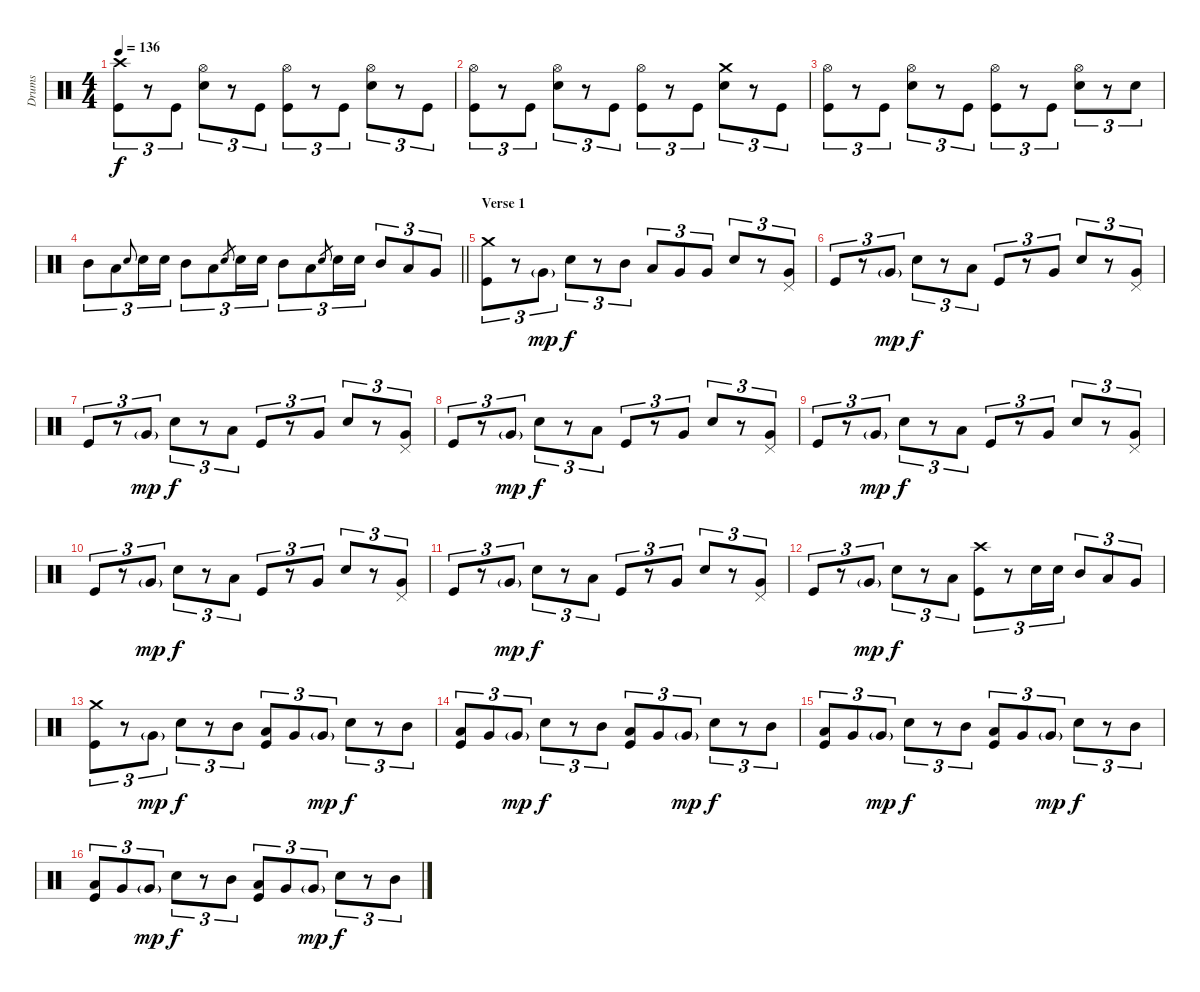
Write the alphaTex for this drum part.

\track ("Drums" "Drums") {instrument percussion}
\staff {score}
\articulation defaults
\ts (4 4)
\tempo 136
\clef neutral
\ks c
("Crash high (hit)" "Kick (hit)").8{tu (3 2) dy f} r.8{tu (3 2)} "Kick (hit)".8{tu (3 2)} ("Hi-Hat (open)" "Electric Snare (hit)").8{tu (3 2)} r.8{tu (3 2)} "Kick (hit)".8{tu (3 2)} ("Hi-Hat (open)" "Kick (hit)").8{tu (3 2)} r.8{tu (3 2)} "Kick (hit)".8{tu (3 2)} ("Hi-Hat (open)" "Electric Snare (hit)").8{tu (3 2)} r.8{tu (3 2)} "Kick (hit)".8{tu (3 2)} |
("Hi-Hat (open)" "Kick (hit)").8{tu (3 2)} r.8{tu (3 2)} "Kick (hit)".8{tu (3 2)} ("Hi-Hat (open)" "Electric Snare (hit)").8{tu (3 2)} r.8{tu (3 2)} "Kick (hit)".8{tu (3 2)} ("Hi-Hat (open)" "Kick (hit)").8{tu (3 2)} r.8{tu (3 2)} "Kick (hit)".8{tu (3 2)} ("Crash medium (hit)" "Electric Snare (hit)").8{tu (3 2)} r.8{tu (3 2)} "Kick (hit)".8{tu (3 2)} |
("Hi-Hat (open)" "Kick (hit)").8{tu (3 2)} r.8{tu (3 2)} "Kick (hit)".8{tu (3 2)} ("Hi-Hat (open)" "Electric Snare (hit)").8{tu (3 2)} r.8{tu (3 2)} "Kick (hit)".8{tu (3 2)} ("Hi-Hat (open)" "Kick (hit)").8{tu (3 2)} r.8{tu (3 2)} "Kick (hit)".8{tu (3 2)} ("Hi-Hat (open)" "Electric Snare (hit)").8{tu (3 2)} r.8{tu (3 2)} "Electric Snare (hit)".8{tu (3 2)} |
\barLineRight lightlight "Mid Tom (hit)".8{tu (3 2)} "Low Tom (hit)".8{tu (3 2)} "Electric Snare (hit)".8{gr onbeat} "Electric Snare (hit)".16{tu (3 2)} "Electric Snare (hit)".16{tu (3 2)} "Mid Tom (hit)".8{tu (3 2)} "Low Tom (hit)".8{tu (3 2)} "Electric Snare (hit)".8{gr} "Electric Snare (hit)".16{tu (3 2)} "Electric Snare (hit)".16{tu (3 2)} "Mid Tom (hit)".8{tu (3 2)} "Low Tom (hit)".8{tu (3 2)} "Electric Snare (hit)".8{gr} "Electric Snare (hit)".16{tu (3 2)} "Electric Snare (hit)".16{tu (3 2)} "Mid Tom (hit)".8{tu (3 2)} "Low Tom (hit)".8{tu (3 2)} "Very Low Tom (hit)".8{tu (3 2)}
|
\section ("" "Verse 1")
("Crash medium (hit)" "Kick (hit)").8{tu (3 2)} r.8{tu (3 2)} "Very Low Tom (hit)"{g}.8{tu (3 2) dy mp} "Electric Snare (hit)".8{tu (3 2) dy f} r.8{tu (3 2)} "Mid Tom (hit)".8{tu (3 2)} "Low Tom (hit)".8{tu (3 2)} "Very Low Tom (hit)".8{tu (3 2)} "Very Low Tom (hit)".8{tu (3 2)} "Electric Snare (hit)".8{tu (3 2)} r.8{tu (3 2)} ("Pedal Hi-Hat (hit)" "Very Low Tom (hit)").8{tu (3 2)} |
"Kick (hit)".8{tu (3 2)} r.8{tu (3 2)} "Very Low Tom (hit)"{g}.8{tu (3 2) dy mp} "Electric Snare (hit)".8{tu (3 2) dy f} r.8{tu (3 2)} "Low Tom (hit)".8{tu (3 2)} "Kick (hit)".8{tu (3 2)} r.8{tu (3 2)} "Very Low Tom (hit)".8{tu (3 2)} "Electric Snare (hit)".8{tu (3 2)} r.8{tu (3 2)} ("Pedal Hi-Hat (hit)" "Very Low Tom (hit)").8{tu (3 2)} |
"Kick (hit)".8{tu (3 2)} r.8{tu (3 2)} "Very Low Tom (hit)"{g}.8{tu (3 2) dy mp} "Electric Snare (hit)".8{tu (3 2) dy f} r.8{tu (3 2)} "Low Tom (hit)".8{tu (3 2)} "Kick (hit)".8{tu (3 2)} r.8{tu (3 2)} "Very Low Tom (hit)".8{tu (3 2)} "Electric Snare (hit)".8{tu (3 2)} r.8{tu (3 2)} ("Pedal Hi-Hat (hit)" "Very Low Tom (hit)").8{tu (3 2)} |
"Kick (hit)".8{tu (3 2)} r.8{tu (3 2)} "Very Low Tom (hit)"{g}.8{tu (3 2) dy mp} "Electric Snare (hit)".8{tu (3 2) dy f} r.8{tu (3 2)} "Low Tom (hit)".8{tu (3 2)} "Kick (hit)".8{tu (3 2)} r.8{tu (3 2)} "Very Low Tom (hit)".8{tu (3 2)} "Electric Snare (hit)".8{tu (3 2)} r.8{tu (3 2)} ("Pedal Hi-Hat (hit)" "Very Low Tom (hit)").8{tu (3 2)} |
"Kick (hit)".8{tu (3 2)} r.8{tu (3 2)} "Very Low Tom (hit)"{g}.8{tu (3 2) dy mp} "Electric Snare (hit)".8{tu (3 2) dy f} r.8{tu (3 2)} "Low Tom (hit)".8{tu (3 2)} "Kick (hit)".8{tu (3 2)} r.8{tu (3 2)} "Very Low Tom (hit)".8{tu (3 2)} "Electric Snare (hit)".8{tu (3 2)} r.8{tu (3 2)} ("Pedal Hi-Hat (hit)" "Very Low Tom (hit)").8{tu (3 2)} |
"Kick (hit)".8{tu (3 2)} r.8{tu (3 2)} "Very Low Tom (hit)"{g}.8{tu (3 2) dy mp} "Electric Snare (hit)".8{tu (3 2) dy f} r.8{tu (3 2)} "Low Tom (hit)".8{tu (3 2)} "Kick (hit)".8{tu (3 2)} r.8{tu (3 2)} "Very Low Tom (hit)".8{tu (3 2)} "Electric Snare (hit)".8{tu (3 2)} r.8{tu (3 2)} ("Pedal Hi-Hat (hit)" "Very Low Tom (hit)").8{tu (3 2)} |
"Kick (hit)".8{tu (3 2)} r.8{tu (3 2)} "Very Low Tom (hit)"{g}.8{tu (3 2) dy mp} "Electric Snare (hit)".8{tu (3 2) dy f} r.8{tu (3 2)} "Low Tom (hit)".8{tu (3 2)} "Kick (hit)".8{tu (3 2)} r.8{tu (3 2)} "Very Low Tom (hit)".8{tu (3 2)} "Electric Snare (hit)".8{tu (3 2)} r.8{tu (3 2)} ("Pedal Hi-Hat (hit)" "Very Low Tom (hit)").8{tu (3 2)} |
"Kick (hit)".8{tu (3 2)} r.8{tu (3 2)} "Very Low Tom (hit)"{g}.8{tu (3 2) dy mp} "Electric Snare (hit)".8{tu (3 2) dy f} r.8{tu (3 2)} "Low Tom (hit)".8{tu (3 2)} ("Crash high (hit)" "Kick (hit)").8{tu (3 2)} r.8{tu (3 2)} "Electric Snare (hit)".16{tu (3 2)} "Electric Snare (hit)".16{tu (3 2)} "Mid Tom (hit)".8{tu (3 2)} "Low Tom (hit)".8{tu (3 2)} "Very Low Tom (hit)".8{tu (3 2)} |
("Crash medium (hit)" "Kick (hit)").8{tu (3 2)} r.8{tu (3 2)} "Very Low Tom (hit)"{g}.8{tu (3 2) dy mp} "Electric Snare (hit)".8{tu (3 2) dy f} r.8{tu (3 2)} "Mid Tom (hit)".8{tu (3 2)} ("Low Tom (hit)" "Kick (hit)").8{tu (3 2)} "Very Low Tom (hit)".8{tu (3 2)} "Very Low Tom (hit)"{g}.8{tu (3 2) dy mp} "Electric Snare (hit)".8{tu (3 2) dy f} r.8{tu (3 2)} "Mid Tom (hit)".8{tu (3 2)} |
("Low Tom (hit)" "Kick (hit)").8{tu (3 2)} "Very Low Tom (hit)".8{tu (3 2)} "Very Low Tom (hit)"{g}.8{tu (3 2) dy mp} "Electric Snare (hit)".8{tu (3 2) dy f} r.8{tu (3 2)} "Mid Tom (hit)".8{tu (3 2)} ("Low Tom (hit)" "Kick (hit)").8{tu (3 2)} "Very Low Tom (hit)".8{tu (3 2)} "Very Low Tom (hit)"{g}.8{tu (3 2) dy mp} "Electric Snare (hit)".8{tu (3 2) dy f} r.8{tu (3 2)} "Mid Tom (hit)".8{tu (3 2)} |
("Low Tom (hit)" "Kick (hit)").8{tu (3 2)} "Very Low Tom (hit)".8{tu (3 2)} "Very Low Tom (hit)"{g}.8{tu (3 2) dy mp} "Electric Snare (hit)".8{tu (3 2) dy f} r.8{tu (3 2)} "Mid Tom (hit)".8{tu (3 2)} ("Low Tom (hit)" "Kick (hit)").8{tu (3 2)} "Very Low Tom (hit)".8{tu (3 2)} "Very Low Tom (hit)"{g}.8{tu (3 2) dy mp} "Electric Snare (hit)".8{tu (3 2) dy f} r.8{tu (3 2)} "Mid Tom (hit)".8{tu (3 2)} |
("Low Tom (hit)" "Kick (hit)").8{tu (3 2)} "Very Low Tom (hit)".8{tu (3 2)} "Very Low Tom (hit)"{g}.8{tu (3 2) dy mp} "Electric Snare (hit)".8{tu (3 2) dy f} r.8{tu (3 2)} "Mid Tom (hit)".8{tu (3 2)} ("Low Tom (hit)" "Kick (hit)").8{tu (3 2)} "Very Low Tom (hit)".8{tu (3 2)} "Very Low Tom (hit)"{g}.8{tu (3 2) dy mp} "Electric Snare (hit)".8{tu (3 2) dy f} r.8{tu (3 2)} "Mid Tom (hit)".8{tu (3 2)}
